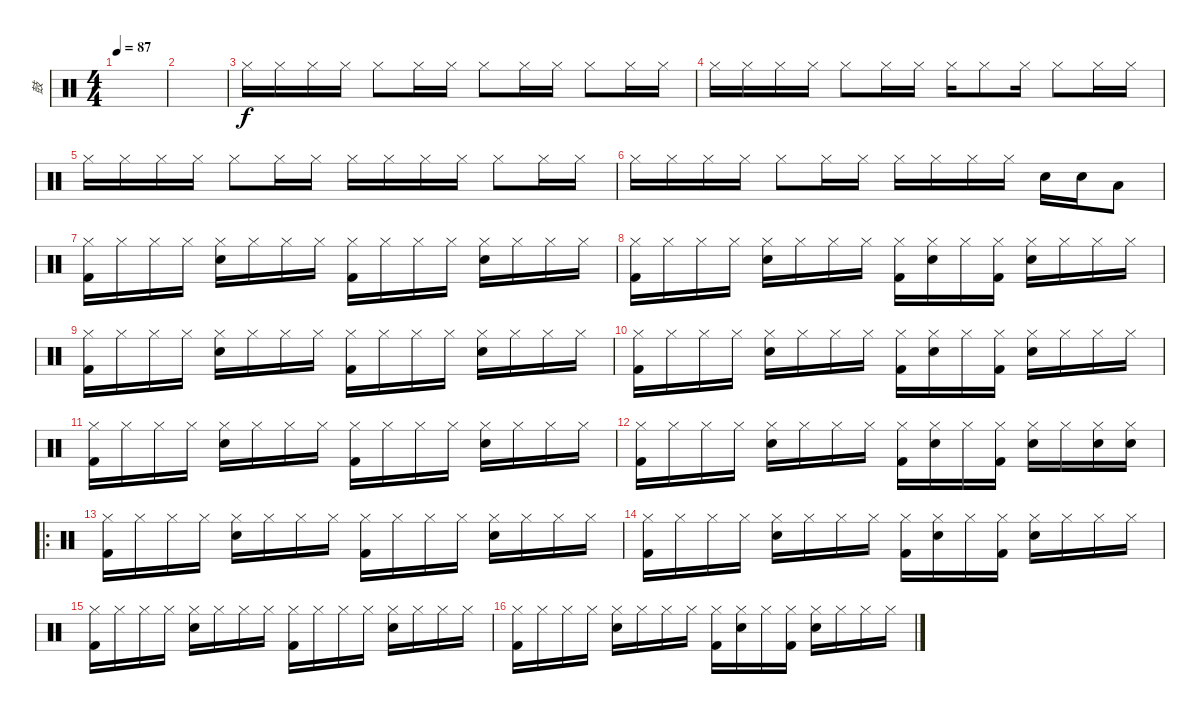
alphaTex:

\track ("鼓" "鼓") {instrument percussion}
\staff {score}
\articulation defaults
\ts (4 4)
\tempo 87
\clef neutral
\ks c
|
|
"Hi-Hat (closed)".16 "Hi-Hat (closed)".16 "Hi-Hat (closed)".16 "Hi-Hat (closed)".16 "Hi-Hat (closed)".8 "Hi-Hat (closed)".16 "Hi-Hat (closed)".16 "Hi-Hat (closed)".8 "Hi-Hat (closed)".16 "Hi-Hat (closed)".16 "Hi-Hat (closed)".8 "Hi-Hat (closed)".16 "Hi-Hat (closed)".16 |
"Hi-Hat (closed)".16 "Hi-Hat (closed)".16 "Hi-Hat (closed)".16 "Hi-Hat (closed)".16 "Hi-Hat (closed)".8 "Hi-Hat (closed)".16 "Hi-Hat (closed)".16 "Hi-Hat (closed)".16 "Hi-Hat (closed)".8 "Hi-Hat (closed)".16 "Hi-Hat (closed)".8 "Hi-Hat (closed)".16 "Hi-Hat (closed)".16 |
"Hi-Hat (closed)".16 "Hi-Hat (closed)".16 "Hi-Hat (closed)".16 "Hi-Hat (closed)".16 "Hi-Hat (closed)".8 "Hi-Hat (closed)".16 "Hi-Hat (closed)".16 "Hi-Hat (closed)".16 "Hi-Hat (closed)".16 "Hi-Hat (closed)".16 "Hi-Hat (closed)".16 "Hi-Hat (closed)".8 "Hi-Hat (closed)".16 "Hi-Hat (closed)".16 |
"Hi-Hat (closed)".16 "Hi-Hat (closed)".16 "Hi-Hat (closed)".16 "Hi-Hat (closed)".16 "Hi-Hat (closed)".8 "Hi-Hat (closed)".16 "Hi-Hat (closed)".16 "Hi-Hat (closed)".16 "Hi-Hat (closed)".16 "Hi-Hat (closed)".16 "Hi-Hat (closed)".16 "Snare (hit) 2".16 "Snare (hit) 2".16 "Low Tom (hit)".8 |
("Hi-Hat (closed)" "Kick (hit) 2").16 "Hi-Hat (closed)".16 "Hi-Hat (closed)".16 "Hi-Hat (closed)".16 ("Hi-Hat (closed)" "Snare (hit) 2").16 "Hi-Hat (closed)".16 "Hi-Hat (closed)".16 "Hi-Hat (closed)".16 ("Hi-Hat (closed)" "Kick (hit) 2").16 "Hi-Hat (closed)".16 "Hi-Hat (closed)".16 "Hi-Hat (closed)".16 ("Hi-Hat (closed)" "Snare (hit) 2").16 "Hi-Hat (closed)".16 "Hi-Hat (closed)".16 "Hi-Hat (closed)".16 |
("Hi-Hat (closed)" "Kick (hit) 2").16 "Hi-Hat (closed)".16 "Hi-Hat (closed)".16 "Hi-Hat (closed)".16 ("Hi-Hat (closed)" "Snare (hit) 2").16 "Hi-Hat (closed)".16 "Hi-Hat (closed)".16 "Hi-Hat (closed)".16 ("Hi-Hat (closed)" "Kick (hit) 2").16 ("Hi-Hat (closed)" "Snare (hit) 2").16 "Hi-Hat (closed)".16 ("Hi-Hat (closed)" "Kick (hit) 2").16 ("Hi-Hat (closed)" "Snare (hit) 2").16 "Hi-Hat (closed)".16 "Hi-Hat (closed)".16 "Hi-Hat (closed)".16 |
("Hi-Hat (closed)" "Kick (hit) 2").16 "Hi-Hat (closed)".16 "Hi-Hat (closed)".16 "Hi-Hat (closed)".16 ("Hi-Hat (closed)" "Snare (hit) 2").16 "Hi-Hat (closed)".16 "Hi-Hat (closed)".16 "Hi-Hat (closed)".16 ("Hi-Hat (closed)" "Kick (hit) 2").16 "Hi-Hat (closed)".16 "Hi-Hat (closed)".16 "Hi-Hat (closed)".16 ("Hi-Hat (closed)" "Snare (hit) 2").16 "Hi-Hat (closed)".16 "Hi-Hat (closed)".16 "Hi-Hat (closed)".16 |
("Hi-Hat (closed)" "Kick (hit) 2").16 "Hi-Hat (closed)".16 "Hi-Hat (closed)".16 "Hi-Hat (closed)".16 ("Hi-Hat (closed)" "Snare (hit) 2").16 "Hi-Hat (closed)".16 "Hi-Hat (closed)".16 "Hi-Hat (closed)".16 ("Hi-Hat (closed)" "Kick (hit) 2").16 ("Hi-Hat (closed)" "Snare (hit) 2").16 "Hi-Hat (closed)".16 ("Hi-Hat (closed)" "Kick (hit) 2").16 ("Hi-Hat (closed)" "Snare (hit) 2").16 "Hi-Hat (closed)".16 "Hi-Hat (closed)".16 "Hi-Hat (closed)".16 |
("Hi-Hat (closed)" "Kick (hit) 2").16 "Hi-Hat (closed)".16 "Hi-Hat (closed)".16 "Hi-Hat (closed)".16 ("Hi-Hat (closed)" "Snare (hit) 2").16 "Hi-Hat (closed)".16 "Hi-Hat (closed)".16 "Hi-Hat (closed)".16 ("Hi-Hat (closed)" "Kick (hit) 2").16 "Hi-Hat (closed)".16 "Hi-Hat (closed)".16 "Hi-Hat (closed)".16 ("Hi-Hat (closed)" "Snare (hit) 2").16 "Hi-Hat (closed)".16 "Hi-Hat (closed)".16 "Hi-Hat (closed)".16 |
("Hi-Hat (closed)" "Kick (hit) 2").16 "Hi-Hat (closed)".16 "Hi-Hat (closed)".16 "Hi-Hat (closed)".16 ("Hi-Hat (closed)" "Snare (hit) 2").16 "Hi-Hat (closed)".16 "Hi-Hat (closed)".16 "Hi-Hat (closed)".16 ("Hi-Hat (closed)" "Kick (hit) 2").16 ("Hi-Hat (closed)" "Snare (hit) 2").16 "Hi-Hat (closed)".16 ("Hi-Hat (closed)" "Kick (hit) 2").16 ("Hi-Hat (closed)" "Snare (hit) 2").16 "Hi-Hat (closed)".16 ("Hi-Hat (closed)" "Snare (hit) 2").16 ("Hi-Hat (closed)" "Snare (hit) 2").16 |
\ro
("Hi-Hat (closed)" "Kick (hit) 2").16 "Hi-Hat (closed)".16 "Hi-Hat (closed)".16 "Hi-Hat (closed)".16 ("Hi-Hat (closed)" "Snare (hit) 2").16 "Hi-Hat (closed)".16 "Hi-Hat (closed)".16 "Hi-Hat (closed)".16 ("Hi-Hat (closed)" "Kick (hit) 2").16 "Hi-Hat (closed)".16 "Hi-Hat (closed)".16 "Hi-Hat (closed)".16 ("Hi-Hat (closed)" "Snare (hit) 2").16 "Hi-Hat (closed)".16 "Hi-Hat (closed)".16 "Hi-Hat (closed)".16 |
("Hi-Hat (closed)" "Kick (hit) 2").16 "Hi-Hat (closed)".16 "Hi-Hat (closed)".16 "Hi-Hat (closed)".16 ("Hi-Hat (closed)" "Snare (hit) 2").16 "Hi-Hat (closed)".16 "Hi-Hat (closed)".16 "Hi-Hat (closed)".16 ("Hi-Hat (closed)" "Kick (hit) 2").16 ("Hi-Hat (closed)" "Snare (hit) 2").16 "Hi-Hat (closed)".16 ("Hi-Hat (closed)" "Kick (hit) 2").16 ("Hi-Hat (closed)" "Snare (hit) 2").16 "Hi-Hat (closed)".16 "Hi-Hat (closed)".16 "Hi-Hat (closed)".16 |
("Hi-Hat (closed)" "Kick (hit) 2").16 "Hi-Hat (closed)".16 "Hi-Hat (closed)".16 "Hi-Hat (closed)".16 ("Hi-Hat (closed)" "Snare (hit) 2").16 "Hi-Hat (closed)".16 "Hi-Hat (closed)".16 "Hi-Hat (closed)".16 ("Hi-Hat (closed)" "Kick (hit) 2").16 "Hi-Hat (closed)".16 "Hi-Hat (closed)".16 "Hi-Hat (closed)".16 ("Hi-Hat (closed)" "Snare (hit) 2").16 "Hi-Hat (closed)".16 "Hi-Hat (closed)".16 "Hi-Hat (closed)".16 |
("Hi-Hat (closed)" "Kick (hit) 2").16 "Hi-Hat (closed)".16 "Hi-Hat (closed)".16 "Hi-Hat (closed)".16 ("Hi-Hat (closed)" "Snare (hit) 2").16 "Hi-Hat (closed)".16 "Hi-Hat (closed)".16 "Hi-Hat (closed)".16 ("Hi-Hat (closed)" "Kick (hit) 2").16 ("Hi-Hat (closed)" "Snare (hit) 2").16 "Hi-Hat (closed)".16 ("Hi-Hat (closed)" "Kick (hit) 2").16 ("Hi-Hat (closed)" "Snare (hit) 2").16 "Hi-Hat (closed)".16 "Hi-Hat (closed)".16 "Hi-Hat (closed)".16
